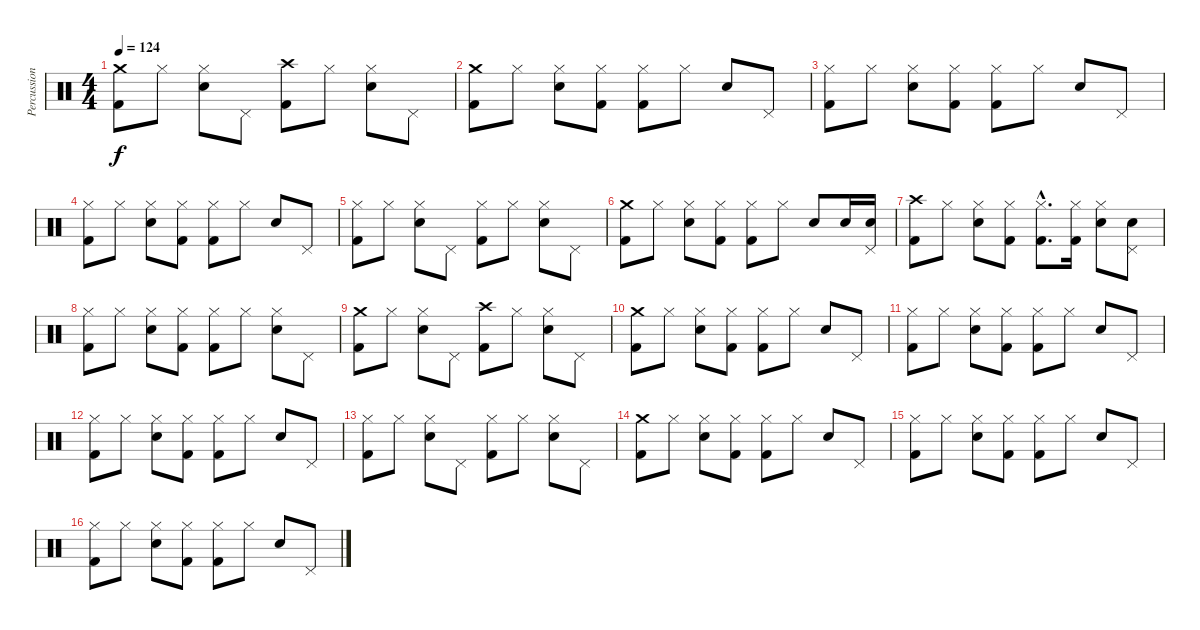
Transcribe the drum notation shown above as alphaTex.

\track ("Percussions" "Percussion") {instrument percussion}
\staff {score}
\articulation defaults
\ts (4 4)
\tempo 124
\clef neutral
\ks c
("Crash medium (hit)" "Kick (hit) 2").8{dy f} "Hi-Hat (closed)".8 ("Hi-Hat (closed)" "Electric Snare (hit)").8 "Pedal Hi-Hat (hit)".8 ("Crash high (hit)" "Kick (hit) 2").8 "Hi-Hat (closed)".8 ("Hi-Hat (closed)" "Electric Snare (hit)").8 "Pedal Hi-Hat (hit)".8 |
("Crash medium (hit)" "Kick (hit) 2").8 "Hi-Hat (closed)".8 ("Hi-Hat (closed)" "Electric Snare (hit)").8 ("Hi-Hat (closed)" "Kick (hit) 2").8 ("Hi-Hat (closed)" "Kick (hit) 2").8 "Hi-Hat (closed)".8 "Electric Snare (hit)".8 "Pedal Hi-Hat (hit)".8 |
("Hi-Hat (closed)" "Kick (hit) 2").8 "Hi-Hat (closed)".8 ("Hi-Hat (closed)" "Electric Snare (hit)").8 ("Hi-Hat (closed)" "Kick (hit) 2").8 ("Hi-Hat (closed)" "Kick (hit) 2").8 "Hi-Hat (closed)".8 "Electric Snare (hit)".8 "Pedal Hi-Hat (hit)".8 |
("Hi-Hat (closed)" "Kick (hit) 2").8 "Hi-Hat (closed)".8 ("Hi-Hat (closed)" "Electric Snare (hit)").8 ("Hi-Hat (closed)" "Kick (hit) 2").8 ("Hi-Hat (closed)" "Kick (hit) 2").8 "Hi-Hat (closed)".8 "Electric Snare (hit)".8 "Pedal Hi-Hat (hit)".8 |
("Hi-Hat (closed)" "Kick (hit) 2").8 "Hi-Hat (closed)".8 ("Hi-Hat (closed)" "Electric Snare (hit)").8 "Pedal Hi-Hat (hit)".8 ("Hi-Hat (closed)" "Kick (hit) 2").8 "Hi-Hat (closed)".8 ("Hi-Hat (closed)" "Electric Snare (hit)").8 "Pedal Hi-Hat (hit)".8 |
("Crash medium (hit)" "Kick (hit) 2").8 "Hi-Hat (closed)".8 ("Hi-Hat (closed)" "Electric Snare (hit)").8 ("Hi-Hat (closed)" "Kick (hit) 2").8 ("Hi-Hat (closed)" "Kick (hit) 2").8 "Hi-Hat (closed)".8 "Electric Snare (hit)".8 "Electric Snare (hit)".16 ("Pedal Hi-Hat (hit)" "Electric Snare (hit)").16 |
("Crash high (hit)" "Kick (hit) 2").8 "Hi-Hat (closed)".8 ("Hi-Hat (closed)" "Electric Snare (hit)").8 ("Hi-Hat (closed)" "Kick (hit) 2").8 ("Hi-Hat (closed)"{hac} "Kick (hit) 2"{hac}).8{d} ("Hi-Hat (closed)" "Kick (hit) 2").16 ("Hi-Hat (closed)" "Electric Snare (hit)").8 ("Pedal Hi-Hat (hit)" "Electric Snare (hit)").8 |
("Hi-Hat (closed)" "Kick (hit) 2").8 "Hi-Hat (closed)".8 ("Hi-Hat (closed)" "Electric Snare (hit)").8 ("Hi-Hat (closed)" "Kick (hit) 2").8 ("Hi-Hat (closed)" "Kick (hit) 2").8 "Hi-Hat (closed)".8 ("Hi-Hat (closed)" "Electric Snare (hit)").8 "Pedal Hi-Hat (hit)".8 |
("Crash medium (hit)" "Kick (hit) 2").8 "Hi-Hat (closed)".8 ("Hi-Hat (closed)" "Electric Snare (hit)").8 "Pedal Hi-Hat (hit)".8 ("Crash high (hit)" "Kick (hit) 2").8 "Hi-Hat (closed)".8 ("Hi-Hat (closed)" "Electric Snare (hit)").8 "Pedal Hi-Hat (hit)".8 |
("Crash medium (hit)" "Kick (hit) 2").8 "Hi-Hat (closed)".8 ("Hi-Hat (closed)" "Electric Snare (hit)").8 ("Hi-Hat (closed)" "Kick (hit) 2").8 ("Hi-Hat (closed)" "Kick (hit) 2").8 "Hi-Hat (closed)".8 "Electric Snare (hit)".8 "Pedal Hi-Hat (hit)".8 |
("Hi-Hat (closed)" "Kick (hit) 2").8 "Hi-Hat (closed)".8 ("Hi-Hat (closed)" "Electric Snare (hit)").8 ("Hi-Hat (closed)" "Kick (hit) 2").8 ("Hi-Hat (closed)" "Kick (hit) 2").8 "Hi-Hat (closed)".8 "Electric Snare (hit)".8 "Pedal Hi-Hat (hit)".8 |
("Hi-Hat (closed)" "Kick (hit) 2").8 "Hi-Hat (closed)".8 ("Hi-Hat (closed)" "Electric Snare (hit)").8 ("Hi-Hat (closed)" "Kick (hit) 2").8 ("Hi-Hat (closed)" "Kick (hit) 2").8 "Hi-Hat (closed)".8 "Electric Snare (hit)".8 "Pedal Hi-Hat (hit)".8 |
("Hi-Hat (closed)" "Kick (hit) 2").8 "Hi-Hat (closed)".8 ("Hi-Hat (closed)" "Electric Snare (hit)").8 "Pedal Hi-Hat (hit)".8 ("Hi-Hat (closed)" "Kick (hit) 2").8 "Hi-Hat (closed)".8 ("Hi-Hat (closed)" "Electric Snare (hit)").8 "Pedal Hi-Hat (hit)".8 |
("Crash medium (hit)" "Kick (hit) 2").8 "Hi-Hat (closed)".8 ("Hi-Hat (closed)" "Electric Snare (hit)").8 ("Hi-Hat (closed)" "Kick (hit) 2").8 ("Hi-Hat (closed)" "Kick (hit) 2").8 "Hi-Hat (closed)".8 "Electric Snare (hit)".8 "Pedal Hi-Hat (hit)".8 |
("Hi-Hat (closed)" "Kick (hit) 2").8 "Hi-Hat (closed)".8 ("Hi-Hat (closed)" "Electric Snare (hit)").8 ("Hi-Hat (closed)" "Kick (hit) 2").8 ("Hi-Hat (closed)" "Kick (hit) 2").8 "Hi-Hat (closed)".8 "Electric Snare (hit)".8 "Pedal Hi-Hat (hit)".8 |
("Hi-Hat (closed)" "Kick (hit) 2").8 "Hi-Hat (closed)".8 ("Hi-Hat (closed)" "Electric Snare (hit)").8 ("Hi-Hat (closed)" "Kick (hit) 2").8 ("Hi-Hat (closed)" "Kick (hit) 2").8 "Hi-Hat (closed)".8 "Electric Snare (hit)".8 "Pedal Hi-Hat (hit)".8
